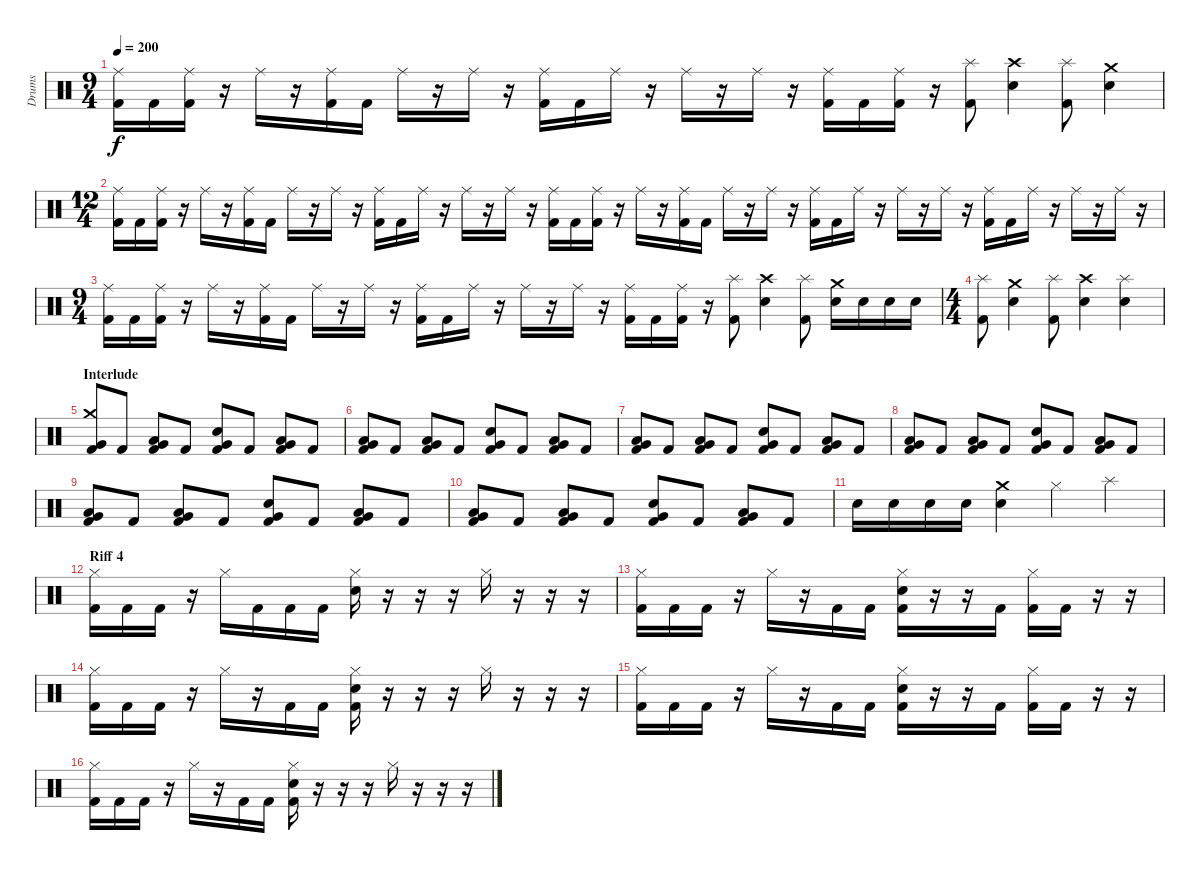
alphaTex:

\track ("Drums" "Drums") {instrument percussion}
\staff {score}
\articulation defaults
\ts (9 4)
\tempo 200
\clef neutral
\ks c
("Ride (middle)" "Kick (hit) 2").16{dy f} "Kick (hit) 2".16 ("Ride (middle)" "Kick (hit) 2").16 r.16 "Ride (middle)".16 r.16 ("Ride (middle)" "Kick (hit) 2").16 "Kick (hit) 2".16 "Ride (middle)".16 r.16 "Ride (middle)".16 r.16 ("Ride (middle)" "Kick (hit) 2").16 "Kick (hit) 2".16 "Ride (middle)".16 r.16 "Ride (middle)".16 r.16 "Ride (middle)".16 r.16 ("Ride (middle)" "Kick (hit) 2").16 "Kick (hit) 2".16 ("Ride (middle)" "Kick (hit) 2").16 r.16 ("Splash (hit)" "Kick (hit) 2").8 ("Crash high (hit)" "Electric Snare (hit)").4 ("Splash (hit)" "Kick (hit) 2").8 ("Crash medium (hit)" "Electric Snare (hit)").4 |
\ts (12 4)
("Ride (middle)" "Kick (hit) 2").16 "Kick (hit) 2".16 ("Ride (middle)" "Kick (hit) 2").16 r.16 "Ride (middle)".16 r.16 ("Ride (middle)" "Kick (hit) 2").16 "Kick (hit) 2".16 "Ride (middle)".16 r.16 "Ride (middle)".16 r.16 ("Ride (middle)" "Kick (hit) 2").16 "Kick (hit) 2".16 "Ride (middle)".16 r.16 "Ride (middle)".16 r.16 "Ride (middle)".16 r.16 ("Ride (middle)" "Kick (hit) 2").16 "Kick (hit) 2".16 ("Ride (middle)" "Kick (hit) 2").16 r.16 "Ride (middle)".16 r.16 ("Ride (middle)" "Kick (hit) 2").16 "Kick (hit) 2".16 "Ride (middle)".16 r.16 "Ride (middle)".16 r.16 ("Ride (middle)" "Kick (hit) 2").16 "Kick (hit) 2".16 "Ride (middle)".16 r.16 "Ride (middle)".16 r.16 "Ride (middle)".16 r.16 ("Ride (middle)" "Kick (hit) 2").16 "Kick (hit) 2".16 "Ride (middle)".16 r.16 "Ride (middle)".16 r.16 "Ride (middle)".16 r.16 |
\ts (9 4)
("Ride (middle)" "Kick (hit) 2").16 "Kick (hit) 2".16 ("Ride (middle)" "Kick (hit) 2").16 r.16 "Ride (middle)".16 r.16 ("Ride (middle)" "Kick (hit) 2").16 "Kick (hit) 2".16 "Ride (middle)".16 r.16 "Ride (middle)".16 r.16 ("Ride (middle)" "Kick (hit) 2").16 "Kick (hit) 2".16 "Ride (middle)".16 r.16 "Ride (middle)".16 r.16 "Ride (middle)".16 r.16 ("Ride (middle)" "Kick (hit) 2").16 "Kick (hit) 2".16 ("Ride (middle)" "Kick (hit) 2").16 r.16 ("Splash (hit)" "Kick (hit) 2").8 ("Crash high (hit)" "Electric Snare (hit)").4 ("Splash (hit)" "Kick (hit) 2").8 ("Crash medium (hit)" "Electric Snare (hit)").16 "Electric Snare (hit)".16 "Electric Snare (hit)".16 "Electric Snare (hit)".16 |
\ts (4 4)
("Splash (hit)" "Kick (hit) 2").8 ("Crash medium (hit)" "Electric Snare (hit)").4 ("Splash (hit)" "Kick (hit) 2").8 ("Crash high (hit)" "Electric Snare (hit)").4 ("Splash (hit)" "Electric Snare (hit)").4 |
\section ("" "Interlude")
("Crash medium (hit)" "Very Low Tom (hit)" "Kick (hit) 2").8 "Kick (hit) 2".8 ("Low Tom (hit)" "Very Low Tom (hit)" "Kick (hit) 2").8 "Kick (hit) 2".8 ("Very Low Tom (hit)" "Electric Snare (hit)" "Kick (hit) 2").8 "Kick (hit) 2".8 ("Low Tom (hit)" "Very Low Tom (hit)" "Kick (hit) 2").8 "Kick (hit) 2".8 |
("Low Tom (hit)" "Very Low Tom (hit)" "Kick (hit) 2").8 "Kick (hit) 2".8 ("Low Tom (hit)" "Very Low Tom (hit)" "Kick (hit) 2").8 "Kick (hit) 2".8 ("Very Low Tom (hit)" "Electric Snare (hit)" "Kick (hit) 2").8 "Kick (hit) 2".8 ("Low Tom (hit)" "Very Low Tom (hit)" "Kick (hit) 2").8 "Kick (hit) 2".8 |
("Low Tom (hit)" "Very Low Tom (hit)" "Kick (hit) 2").8 "Kick (hit) 2".8 ("Low Tom (hit)" "Very Low Tom (hit)" "Kick (hit) 2").8 "Kick (hit) 2".8 ("Very Low Tom (hit)" "Electric Snare (hit)" "Kick (hit) 2").8 "Kick (hit) 2".8 ("Low Tom (hit)" "Very Low Tom (hit)" "Kick (hit) 2").8 "Kick (hit) 2".8 |
("Low Tom (hit)" "Very Low Tom (hit)" "Kick (hit) 2").8 "Kick (hit) 2".8 ("Low Tom (hit)" "Very Low Tom (hit)" "Kick (hit) 2").8 "Kick (hit) 2".8 ("Very Low Tom (hit)" "Electric Snare (hit)" "Kick (hit) 2").8 "Kick (hit) 2".8 ("Low Tom (hit)" "Very Low Tom (hit)" "Kick (hit) 2").8 "Kick (hit) 2".8 |
("Low Tom (hit)" "Very Low Tom (hit)" "Kick (hit) 2").8 "Kick (hit) 2".8 ("Low Tom (hit)" "Very Low Tom (hit)" "Kick (hit) 2").8 "Kick (hit) 2".8 ("Very Low Tom (hit)" "Electric Snare (hit)" "Kick (hit) 2").8 "Kick (hit) 2".8 ("Low Tom (hit)" "Very Low Tom (hit)" "Kick (hit) 2").8 "Kick (hit) 2".8 |
("Low Tom (hit)" "Very Low Tom (hit)" "Kick (hit) 2").8 "Kick (hit) 2".8 ("Low Tom (hit)" "Very Low Tom (hit)" "Kick (hit) 2").8 "Kick (hit) 2".8 ("Very Low Tom (hit)" "Electric Snare (hit)" "Kick (hit) 2").8 "Kick (hit) 2".8 ("Low Tom (hit)" "Very Low Tom (hit)" "Kick (hit) 2").8 "Kick (hit) 2".8 |
"Electric Snare (hit)".16 "Electric Snare (hit)".16 "Electric Snare (hit)".16 "Electric Snare (hit)".16 ("Crash medium (hit)" "Electric Snare (hit)").4 "Hi-Hat (closed)".4 "Splash (hit)".4 |
\section ("" "Riff 4")
("Hi-Hat (closed)" "Kick (hit) 2").16 "Kick (hit) 2".16 "Kick (hit) 2".16 r.16 "Hi-Hat (closed)".16 "Kick (hit) 2".16 "Kick (hit) 2".16 "Kick (hit) 2".16 ("Hi-Hat (closed)" "Electric Snare (hit)").16 r.16 r.16 r.16 "Hi-Hat (closed)".16 r.16 r.16 r.16 |
("Hi-Hat (closed)" "Kick (hit) 2").16 "Kick (hit) 2".16 "Kick (hit) 2".16 r.16 "Hi-Hat (closed)".16 r.16 "Kick (hit) 2".16 "Kick (hit) 2".16 ("Hi-Hat (closed)" "Electric Snare (hit)" "Kick (hit) 2").16 r.16 r.16 "Kick (hit) 2".16 ("Hi-Hat (closed)" "Kick (hit) 2").16 "Kick (hit) 2".16 r.16 r.16 |
("Hi-Hat (closed)" "Kick (hit) 2").16 "Kick (hit) 2".16 "Kick (hit) 2".16 r.16 "Hi-Hat (closed)".16 r.16 "Kick (hit) 2".16 "Kick (hit) 2".16 ("Hi-Hat (closed)" "Electric Snare (hit)" "Kick (hit) 2").16 r.16 r.16 r.16 "Hi-Hat (closed)".16 r.16 r.16 r.16 |
("Hi-Hat (closed)" "Kick (hit) 2").16 "Kick (hit) 2".16 "Kick (hit) 2".16 r.16 "Hi-Hat (closed)".16 r.16 "Kick (hit) 2".16 "Kick (hit) 2".16 ("Hi-Hat (closed)" "Electric Snare (hit)" "Kick (hit) 2").16 r.16 r.16 "Kick (hit) 2".16 ("Hi-Hat (closed)" "Kick (hit) 2").16 "Kick (hit) 2".16 r.16 r.16 |
("Hi-Hat (closed)" "Kick (hit) 2").16 "Kick (hit) 2".16 "Kick (hit) 2".16 r.16 "Hi-Hat (closed)".16 r.16 "Kick (hit) 2".16 "Kick (hit) 2".16 ("Hi-Hat (closed)" "Electric Snare (hit)" "Kick (hit) 2").16 r.16 r.16 r.16 "Hi-Hat (closed)".16 r.16 r.16 r.16
